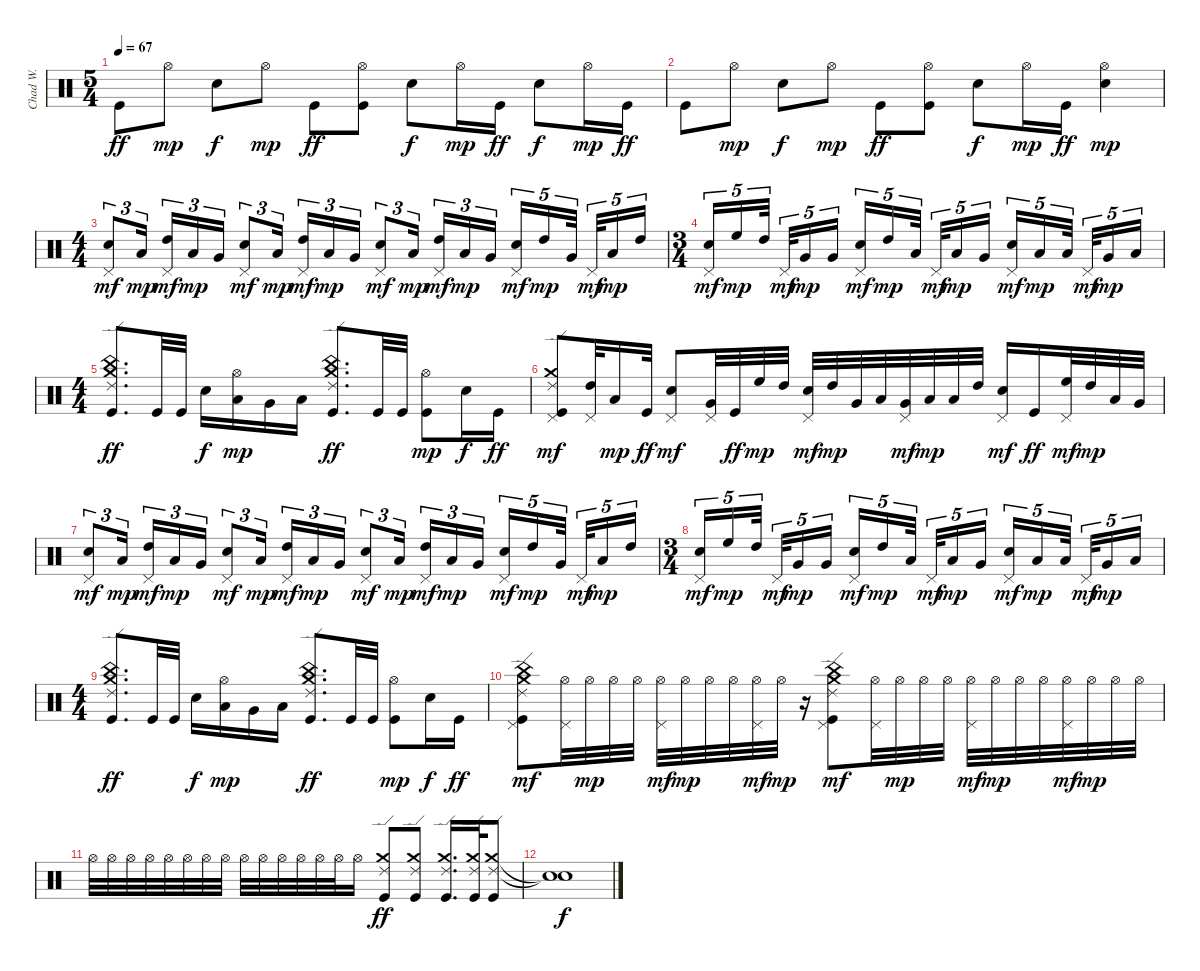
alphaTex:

\track ("Chad W." "Chad W.") {instrument percussion}
\staff {score}
\articulation defaults
\ts (5 4)
\tempo 67
\clef neutral
\ks c "Kick (hit)".8{dy ff} "Hi-Hat (open)".8{dy mp} "Snare (hit) 2".8{dy f} "Hi-Hat (open)".8{dy mp} "Kick (hit)".8{dy ff}
("Hi-Hat (open)" "Kick (hit)").8 "Snare (hit) 2".8{dy f} "Hi-Hat (open)".16{dy mp} "Kick (hit)".16{dy ff} "Snare (hit) 2".8{dy f} "Hi-Hat (open)".16{dy mp} "Kick (hit)".16{dy ff} |
"Kick (hit)".8 "Hi-Hat (open)".8{dy mp} "Snare (hit) 2".8{dy f} "Hi-Hat (open)".8{dy mp} "Kick (hit)".8{dy ff} ("Hi-Hat (open)" "Kick (hit)").8 "Snare (hit) 2".8{dy f} "Hi-Hat (open)".16{dy mp} "Kick (hit)".16{dy ff} ("Hi-Hat (open)" "Snare (hit) 2").4{dy mp} |
\ts (4 4)
("Snare (hit) 2" "Pedal Hi-Hat (hit)").8{tu (3 2) dy mf} "Low Tom (hit)".16{tu (3 2) dy mp beam splitsecondary} ("High Tom (hit)" "Pedal Hi-Hat (hit)").16{tu (3 2) dy mf} "Low Tom (hit)".16{tu (3 2) dy mp} "Very Low Tom (hit)".16{tu (3 2)} ("Snare (hit) 2" "Pedal Hi-Hat (hit)").8{tu (3 2) dy mf} "Low Tom (hit)".16{tu (3 2) dy mp beam splitsecondary} ("High Tom (hit)" "Pedal Hi-Hat (hit)").16{tu (3 2) dy mf} "Low Tom (hit)".16{tu (3 2) dy mp} "Very Low Tom (hit)".16{tu (3 2)} ("Snare (hit) 2" "Pedal Hi-Hat (hit)").8{tu (3 2) dy mf} "Low Tom (hit)".16{tu (3 2) dy mp beam splitsecondary} ("High Tom (hit)" "Pedal Hi-Hat (hit)").16{tu (3 2) dy mf} "Low Tom (hit)".16{tu (3 2) dy mp} "Very Low Tom (hit)".16{tu (3 2)} ("Snare (hit) 2" "Pedal Hi-Hat (hit)").16{tu (5 4) dy mf} "High Tom (hit)".16{tu (5 4) dy mp} "Very Low Tom (hit)".32{tu (5 4) beam splitsecondary} "Pedal Hi-Hat (hit)".32{tu (5 4) dy mf} "Low Floor Tom (hit)".16{tu (5 4) dy mp} "High Tom (hit)".16{tu (5 4)} |
\ts (3 4)
("Snare (hit) 2" "Pedal Hi-Hat (hit)").16{tu (5 4) dy mf} "High Floor Tom (hit)".16{tu (5 4) dy mp} "High Tom (hit)".32{tu (5 4) beam splitsecondary} "Pedal Hi-Hat (hit)".32{tu (5 4) dy mf} "Very Low Tom (hit)".16{tu (5 4) dy mp} "Very Low Tom (hit)".16{tu (5 4)} ("Snare (hit) 2" "Pedal Hi-Hat (hit)").16{tu (5 4) dy mf} "High Tom (hit)".16{tu (5 4) dy mp} "Low Tom (hit)".32{tu (5 4) beam splitsecondary} "Pedal Hi-Hat (hit)".32{tu (5 4) dy mf} "Low Tom (hit)".16{tu (5 4) dy mp} "Very Low Tom (hit)".16{tu (5 4)} ("Snare (hit) 2" "Pedal Hi-Hat (hit)").16{tu (5 4) dy mf} "Low Tom (hit)".16{tu (5 4) dy mp} "Low Tom (hit)".32{tu (5 4) beam splitsecondary} "Pedal Hi-Hat (hit)".32{tu (5 4) dy mf} "Very Low Tom (hit)".16{tu (5 4) dy mp} "Low Floor Tom (hit)".16{tu (5 4)} |
\ts (4 4)
("Crash medium (hit)" "China (hit)" "Ride (edge) 2" "Kick (hit)").8{d dy ff} "Kick (hit)".32 "Kick (hit)".32 "Snare (hit) 2".16{dy f} ("Low Tom (hit)" "Hi-Hat (open)").16{dy mp} "Very Low Tom (hit)".16 "Low Floor Tom (hit)".16 ("Crash medium (hit)" "China (hit)" "Ride (edge) 2" "Kick (hit)").8{d dy ff} "Kick (hit)".32 "Kick (hit)".32 ("Kick (hit)" "Hi-Hat (open)").8{dy mp} "Snare (hit) 2".16{dy f} "Kick (hit)".16{dy ff} |
("Kick (hit)" "Crash medium (hit)" "Ride (edge) 2" "Pedal Hi-Hat (hit)").8{dy mf} ("High Tom (hit)" "Pedal Hi-Hat (hit)").32 "Low Tom (hit)".16{dy mp} "Kick (hit)".32{dy ff} ("Snare (hit) 2" "Pedal Hi-Hat (hit)").8{dy mf} ("Very Low Tom (hit)" "Pedal Hi-Hat (hit)").32 "Kick (hit)".32{dy ff} "High Floor Tom (hit)".32{dy mp} "High Tom (hit)".32 ("Snare (hit) 2" "Pedal Hi-Hat (hit)").32{dy mf} "High Tom (hit)".32{dy mp} "Very Low Tom (hit)".32 "Low Tom (hit)".32 ("Very Low Tom (hit)" "Pedal Hi-Hat (hit)").32{dy mf} "Low Floor Tom (hit)".32{dy mp} "Low Tom (hit)".32 "High Tom (hit)".32 ("Snare (hit) 2" "Pedal Hi-Hat (hit)").16{dy mf} "Kick (hit)".16{dy ff} ("High Floor Tom (hit)" "Pedal Hi-Hat (hit)").32{dy mf} "High Tom (hit)".32{dy mp} "Low Tom (hit)".32 "Very Low Tom (hit)".32 |
("Snare (hit) 2" "Pedal Hi-Hat (hit)").8{tu (3 2) dy mf} "Low Tom (hit)".16{tu (3 2) dy mp beam splitsecondary} ("High Tom (hit)" "Pedal Hi-Hat (hit)").16{tu (3 2) dy mf} "Low Tom (hit)".16{tu (3 2) dy mp} "Very Low Tom (hit)".16{tu (3 2)} ("Snare (hit) 2" "Pedal Hi-Hat (hit)").8{tu (3 2) dy mf} "Low Tom (hit)".16{tu (3 2) dy mp beam splitsecondary} ("High Tom (hit)" "Pedal Hi-Hat (hit)").16{tu (3 2) dy mf} "Low Tom (hit)".16{tu (3 2) dy mp} "Very Low Tom (hit)".16{tu (3 2)} ("Snare (hit) 2" "Pedal Hi-Hat (hit)").8{tu (3 2) dy mf} "Low Tom (hit)".16{tu (3 2) dy mp beam splitsecondary} ("High Tom (hit)" "Pedal Hi-Hat (hit)").16{tu (3 2) dy mf} "Low Tom (hit)".16{tu (3 2) dy mp} "Very Low Tom (hit)".16{tu (3 2)} ("Snare (hit) 2" "Pedal Hi-Hat (hit)").16{tu (5 4) dy mf} "High Tom (hit)".16{tu (5 4) dy mp} "Very Low Tom (hit)".32{tu (5 4) beam splitsecondary} "Pedal Hi-Hat (hit)".32{tu (5 4) dy mf} "Low Floor Tom (hit)".16{tu (5 4) dy mp} "High Tom (hit)".16{tu (5 4)} |
\ts (3 4)
("Snare (hit) 2" "Pedal Hi-Hat (hit)").16{tu (5 4) dy mf} "High Floor Tom (hit)".16{tu (5 4) dy mp} "High Tom (hit)".32{tu (5 4) beam splitsecondary} "Pedal Hi-Hat (hit)".32{tu (5 4) dy mf} "Very Low Tom (hit)".16{tu (5 4) dy mp} "Very Low Tom (hit)".16{tu (5 4)} ("Snare (hit) 2" "Pedal Hi-Hat (hit)").16{tu (5 4) dy mf} "High Tom (hit)".16{tu (5 4) dy mp} "Low Tom (hit)".32{tu (5 4) beam splitsecondary} "Pedal Hi-Hat (hit)".32{tu (5 4) dy mf} "Low Tom (hit)".16{tu (5 4) dy mp} "Very Low Tom (hit)".16{tu (5 4)} ("Snare (hit) 2" "Pedal Hi-Hat (hit)").16{tu (5 4) dy mf} "Low Tom (hit)".16{tu (5 4) dy mp} "Low Tom (hit)".32{tu (5 4) beam splitsecondary} "Pedal Hi-Hat (hit)".32{tu (5 4) dy mf} "Very Low Tom (hit)".16{tu (5 4) dy mp} "Low Floor Tom (hit)".16{tu (5 4)} |
\ts (4 4)
("Crash medium (hit)" "China (hit)" "Ride (edge) 2" "Kick (hit)").8{d dy ff} "Kick (hit)".32 "Kick (hit)".32 "Snare (hit) 2".16{dy f} ("Low Tom (hit)" "Hi-Hat (open)").16{dy mp} "Very Low Tom (hit)".16 "Low Floor Tom (hit)".16 ("Crash medium (hit)" "China (hit)" "Ride (edge) 2" "Kick (hit)").8{d dy ff} "Kick (hit)".32 "Kick (hit)".32 ("Kick (hit)" "Hi-Hat (open)").8{dy mp} "Snare (hit) 2".16{dy f} "Kick (hit)".16{dy ff} |
("Kick (hit)" "Crash medium (hit)" "China (hit)" "Ride (edge) 2" "Pedal Hi-Hat (hit)").8{dy mf} ("Hi-Hat (open)" "Pedal Hi-Hat (hit)").32 "Hi-Hat (open)".32{dy mp} "Hi-Hat (open)".32 "Hi-Hat (open)".32 ("Hi-Hat (open)" "Pedal Hi-Hat (hit)").32{dy mf} "Hi-Hat (open)".32{dy mp} "Hi-Hat (open)".32 "Hi-Hat (open)".32 ("Hi-Hat (open)" "Pedal Hi-Hat (hit)").32{dy mf} "Hi-Hat (open)".32{dy mp} r.16 ("Kick (hit)" "Crash medium (hit)" "China (hit)" "Ride (edge) 2" "Pedal Hi-Hat (hit)").8{dy mf} ("Hi-Hat (open)" "Pedal Hi-Hat (hit)").32 "Hi-Hat (open)".32{dy mp} "Hi-Hat (open)".32 "Hi-Hat (open)".32 ("Hi-Hat (open)" "Pedal Hi-Hat (hit)").32{dy mf} "Hi-Hat (open)".32{dy mp} "Hi-Hat (open)".32 "Hi-Hat (open)".32 ("Hi-Hat (open)" "Pedal Hi-Hat (hit)").32{dy mf} "Hi-Hat (open)".32{dy mp} "Hi-Hat (open)".32 "Hi-Hat (open)".32 |
"Hi-Hat (open)".32 "Hi-Hat (open)".32 "Hi-Hat (open)".32 "Hi-Hat (open)".32 "Hi-Hat (open)".32 "Hi-Hat (open)".32 "Hi-Hat (open)".32 "Hi-Hat (open)".32 "Hi-Hat (open)".32 "Hi-Hat (open)".32 "Hi-Hat (open)".32 "Hi-Hat (open)".32 "Hi-Hat (open)".32 "Hi-Hat (open)".32 "Hi-Hat (open)".16 ("Crash medium (hit)" "Ride (edge) 2" "Kick (hit)").8{dy ff} ("Crash medium (hit)" "Ride (edge) 2" "Kick (hit)").8 ("Crash medium (hit)" "Ride (edge) 2" "Kick (hit)").16{d} ("Crash medium (hit)" "Ride (edge) 2" "Kick (hit)").32 ("Crash medium (hit)" "Ride (edge) 2" "Kick (hit)").8 |
("Snare (hit)"{t} "Snare (hit)"{t}).1{dy f}
